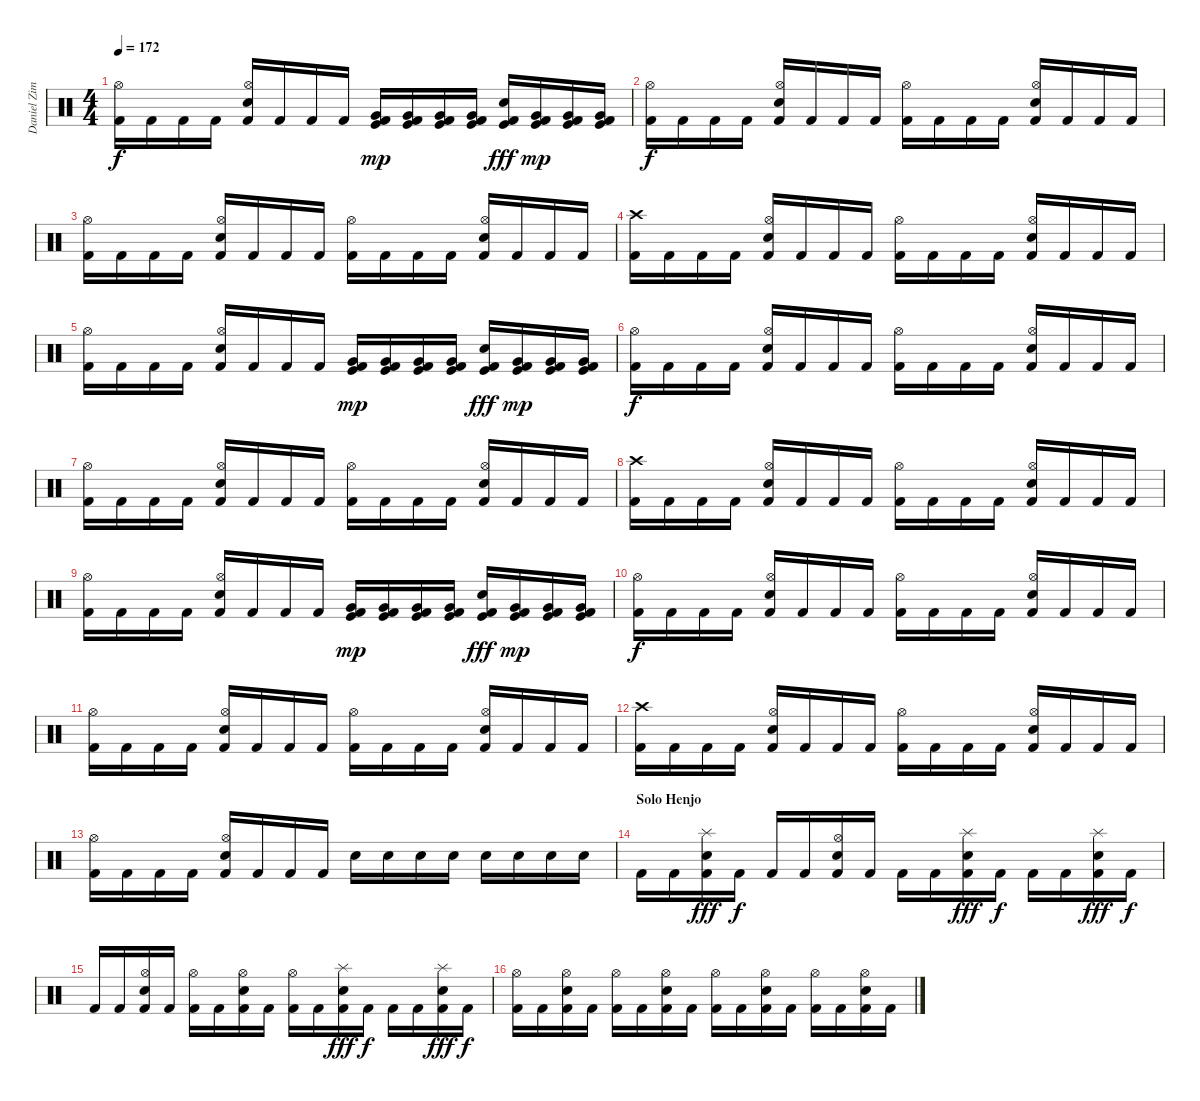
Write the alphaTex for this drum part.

\track ("Daniel Zimmermann - Drums" "Daniel Zim") {instrument percussion}
\staff {score}
\articulation defaults
\ts (4 4)
\tempo 172
\clef neutral
\ks c
("Kick (hit) 2" "Hi-Hat (open)").16{dy f} "Kick (hit) 2".16 "Kick (hit) 2".16 "Kick (hit) 2".16 ("Kick (hit) 2" "Electric Snare (hit)" "Hi-Hat (open)").16 "Kick (hit) 2".16 "Kick (hit) 2".16 "Kick (hit) 2".16 ("Kick (hit) 2" "Kick (hit)" "Very Low Tom (hit)").16{dy mp} ("Kick (hit) 2" "Kick (hit)" "Very Low Tom (hit)").16 ("Kick (hit) 2" "Kick (hit)" "Very Low Tom (hit)").16 ("Kick (hit) 2" "Kick (hit)" "Very Low Tom (hit)").16 ("Kick (hit) 2" "Kick (hit)" "Electric Snare (hit)").16{dy fff} ("Kick (hit) 2" "Kick (hit)" "Very Low Tom (hit)").16{dy mp} ("Kick (hit) 2" "Kick (hit)" "Very Low Tom (hit)").16 ("Kick (hit) 2" "Kick (hit)" "Very Low Tom (hit)").16 |
("Kick (hit) 2" "Hi-Hat (open)").16{dy f} "Kick (hit) 2".16 "Kick (hit) 2".16 "Kick (hit) 2".16 ("Kick (hit) 2" "Electric Snare (hit)" "Hi-Hat (open)").16 "Kick (hit) 2".16 "Kick (hit) 2".16 "Kick (hit) 2".16 ("Kick (hit) 2" "Hi-Hat (open)").16 "Kick (hit) 2".16 "Kick (hit) 2".16 "Kick (hit) 2".16 ("Kick (hit) 2" "Electric Snare (hit)" "Hi-Hat (open)").16 "Kick (hit) 2".16 "Kick (hit) 2".16 "Kick (hit) 2".16 |
("Kick (hit) 2" "Hi-Hat (open)").16 "Kick (hit) 2".16 "Kick (hit) 2".16 "Kick (hit) 2".16 ("Kick (hit) 2" "Electric Snare (hit)" "Hi-Hat (open)").16 "Kick (hit) 2".16 "Kick (hit) 2".16 "Kick (hit) 2".16 ("Kick (hit) 2" "Hi-Hat (open)").16 "Kick (hit) 2".16 "Kick (hit) 2".16 "Kick (hit) 2".16 ("Kick (hit) 2" "Electric Snare (hit)" "Hi-Hat (open)").16 "Kick (hit) 2".16 "Kick (hit) 2".16 "Kick (hit) 2".16 |
("Kick (hit) 2" "Crash high (hit)").16 "Kick (hit) 2".16 "Kick (hit) 2".16 "Kick (hit) 2".16 ("Kick (hit) 2" "Electric Snare (hit)" "Hi-Hat (open)").16 "Kick (hit) 2".16 "Kick (hit) 2".16 "Kick (hit) 2".16 ("Kick (hit) 2" "Hi-Hat (open)").16 "Kick (hit) 2".16 "Kick (hit) 2".16 "Kick (hit) 2".16 ("Kick (hit) 2" "Electric Snare (hit)" "Hi-Hat (open)").16 "Kick (hit) 2".16 "Kick (hit) 2".16 "Kick (hit) 2".16 |
("Kick (hit) 2" "Hi-Hat (open)").16 "Kick (hit) 2".16 "Kick (hit) 2".16 "Kick (hit) 2".16 ("Kick (hit) 2" "Electric Snare (hit)" "Hi-Hat (open)").16 "Kick (hit) 2".16 "Kick (hit) 2".16 "Kick (hit) 2".16 ("Kick (hit) 2" "Kick (hit)" "Very Low Tom (hit)").16{dy mp} ("Kick (hit) 2" "Kick (hit)" "Very Low Tom (hit)").16 ("Kick (hit) 2" "Kick (hit)" "Very Low Tom (hit)").16 ("Kick (hit) 2" "Kick (hit)" "Very Low Tom (hit)").16 ("Kick (hit) 2" "Kick (hit)" "Electric Snare (hit)").16{dy fff} ("Kick (hit) 2" "Kick (hit)" "Very Low Tom (hit)").16{dy mp} ("Kick (hit) 2" "Kick (hit)" "Very Low Tom (hit)").16 ("Kick (hit) 2" "Kick (hit)" "Very Low Tom (hit)").16 |
("Kick (hit) 2" "Hi-Hat (open)").16{dy f} "Kick (hit) 2".16 "Kick (hit) 2".16 "Kick (hit) 2".16 ("Kick (hit) 2" "Electric Snare (hit)" "Hi-Hat (open)").16 "Kick (hit) 2".16 "Kick (hit) 2".16 "Kick (hit) 2".16 ("Kick (hit) 2" "Hi-Hat (open)").16 "Kick (hit) 2".16 "Kick (hit) 2".16 "Kick (hit) 2".16 ("Kick (hit) 2" "Electric Snare (hit)" "Hi-Hat (open)").16 "Kick (hit) 2".16 "Kick (hit) 2".16 "Kick (hit) 2".16 |
("Kick (hit) 2" "Hi-Hat (open)").16 "Kick (hit) 2".16 "Kick (hit) 2".16 "Kick (hit) 2".16 ("Kick (hit) 2" "Electric Snare (hit)" "Hi-Hat (open)").16 "Kick (hit) 2".16 "Kick (hit) 2".16 "Kick (hit) 2".16 ("Kick (hit) 2" "Hi-Hat (open)").16 "Kick (hit) 2".16 "Kick (hit) 2".16 "Kick (hit) 2".16 ("Kick (hit) 2" "Electric Snare (hit)" "Hi-Hat (open)").16 "Kick (hit) 2".16 "Kick (hit) 2".16 "Kick (hit) 2".16 |
("Kick (hit) 2" "Crash high (hit)").16 "Kick (hit) 2".16 "Kick (hit) 2".16 "Kick (hit) 2".16 ("Kick (hit) 2" "Electric Snare (hit)" "Hi-Hat (open)").16 "Kick (hit) 2".16 "Kick (hit) 2".16 "Kick (hit) 2".16 ("Kick (hit) 2" "Hi-Hat (open)").16 "Kick (hit) 2".16 "Kick (hit) 2".16 "Kick (hit) 2".16 ("Kick (hit) 2" "Electric Snare (hit)" "Hi-Hat (open)").16 "Kick (hit) 2".16 "Kick (hit) 2".16 "Kick (hit) 2".16 |
("Kick (hit) 2" "Hi-Hat (open)").16 "Kick (hit) 2".16 "Kick (hit) 2".16 "Kick (hit) 2".16 ("Kick (hit) 2" "Electric Snare (hit)" "Hi-Hat (open)").16 "Kick (hit) 2".16 "Kick (hit) 2".16 "Kick (hit) 2".16 ("Kick (hit) 2" "Kick (hit)" "Very Low Tom (hit)").16{dy mp} ("Kick (hit) 2" "Kick (hit)" "Very Low Tom (hit)").16 ("Kick (hit) 2" "Kick (hit)" "Very Low Tom (hit)").16 ("Kick (hit) 2" "Kick (hit)" "Very Low Tom (hit)").16 ("Kick (hit) 2" "Kick (hit)" "Electric Snare (hit)").16{dy fff} ("Kick (hit) 2" "Kick (hit)" "Very Low Tom (hit)").16{dy mp} ("Kick (hit) 2" "Kick (hit)" "Very Low Tom (hit)").16 ("Kick (hit) 2" "Kick (hit)" "Very Low Tom (hit)").16 |
("Kick (hit) 2" "Hi-Hat (open)").16{dy f} "Kick (hit) 2".16 "Kick (hit) 2".16 "Kick (hit) 2".16 ("Kick (hit) 2" "Electric Snare (hit)" "Hi-Hat (open)").16 "Kick (hit) 2".16 "Kick (hit) 2".16 "Kick (hit) 2".16 ("Kick (hit) 2" "Hi-Hat (open)").16 "Kick (hit) 2".16 "Kick (hit) 2".16 "Kick (hit) 2".16 ("Kick (hit) 2" "Electric Snare (hit)" "Hi-Hat (open)").16 "Kick (hit) 2".16 "Kick (hit) 2".16 "Kick (hit) 2".16 |
("Kick (hit) 2" "Hi-Hat (open)").16 "Kick (hit) 2".16 "Kick (hit) 2".16 "Kick (hit) 2".16 ("Kick (hit) 2" "Electric Snare (hit)" "Hi-Hat (open)").16 "Kick (hit) 2".16 "Kick (hit) 2".16 "Kick (hit) 2".16 ("Kick (hit) 2" "Hi-Hat (open)").16 "Kick (hit) 2".16 "Kick (hit) 2".16 "Kick (hit) 2".16 ("Kick (hit) 2" "Electric Snare (hit)" "Hi-Hat (open)").16 "Kick (hit) 2".16 "Kick (hit) 2".16 "Kick (hit) 2".16 |
("Kick (hit) 2" "Crash high (hit)").16 "Kick (hit) 2".16 "Kick (hit) 2".16 "Kick (hit) 2".16 ("Kick (hit) 2" "Electric Snare (hit)" "Hi-Hat (open)").16 "Kick (hit) 2".16 "Kick (hit) 2".16 "Kick (hit) 2".16 ("Kick (hit) 2" "Hi-Hat (open)").16 "Kick (hit) 2".16 "Kick (hit) 2".16 "Kick (hit) 2".16 ("Kick (hit) 2" "Electric Snare (hit)" "Hi-Hat (open)").16 "Kick (hit) 2".16 "Kick (hit) 2".16 "Kick (hit) 2".16 |
("Kick (hit) 2" "Hi-Hat (open)").16 "Kick (hit) 2".16 "Kick (hit) 2".16 "Kick (hit) 2".16 ("Kick (hit) 2" "Electric Snare (hit)" "Hi-Hat (open)").16 "Kick (hit) 2".16 "Kick (hit) 2".16 "Kick (hit) 2".16 "Electric Snare (hit)".16 "Electric Snare (hit)".16 "Electric Snare (hit)".16 "Electric Snare (hit)".16 "Electric Snare (hit)".16 "Electric Snare (hit)".16 "Electric Snare (hit)".16 "Electric Snare (hit)".16 |
\section ("" "Solo Henjo")
"Kick (hit) 2".16 "Kick (hit) 2".16 ("Kick (hit) 2" "Electric Snare (hit)" "Splash (hit)").16{dy fff} "Kick (hit) 2".16{dy f} "Kick (hit) 2".16 "Kick (hit) 2".16 ("Kick (hit) 2" "Electric Snare (hit)" "Hi-Hat (open)").16 "Kick (hit) 2".16 "Kick (hit) 2".16 "Kick (hit) 2".16 ("Kick (hit) 2" "Electric Snare (hit)" "Splash (hit)").16{dy fff} "Kick (hit) 2".16{dy f} "Kick (hit) 2".16 "Kick (hit) 2".16 ("Kick (hit) 2" "Electric Snare (hit)" "Splash (hit)").16{dy fff} "Kick (hit) 2".16{dy f} |
"Kick (hit) 2".16 "Kick (hit) 2".16 ("Kick (hit) 2" "Electric Snare (hit)" "Hi-Hat (open)").16 "Kick (hit) 2".16 ("Kick (hit) 2" "Hi-Hat (open)").16 "Kick (hit) 2".16 ("Kick (hit) 2" "Electric Snare (hit)" "Hi-Hat (open)").16 "Kick (hit) 2".16 ("Kick (hit) 2" "Hi-Hat (open)").16 "Kick (hit) 2".16 ("Kick (hit) 2" "Electric Snare (hit)" "Splash (hit)").16{dy fff} "Kick (hit) 2".16{dy f} "Kick (hit) 2".16 "Kick (hit) 2".16 ("Kick (hit) 2" "Electric Snare (hit)" "Splash (hit)").16{dy fff} "Kick (hit) 2".16{dy f} |
("Kick (hit) 2" "Hi-Hat (open)").16 "Kick (hit) 2".16 ("Kick (hit) 2" "Electric Snare (hit)" "Hi-Hat (open)").16 "Kick (hit) 2".16 ("Kick (hit) 2" "Hi-Hat (open)").16 "Kick (hit) 2".16 ("Kick (hit) 2" "Electric Snare (hit)" "Hi-Hat (open)").16 "Kick (hit) 2".16 ("Kick (hit) 2" "Hi-Hat (open)").16 "Kick (hit) 2".16 ("Kick (hit) 2" "Electric Snare (hit)" "Hi-Hat (open)").16 "Kick (hit) 2".16 ("Kick (hit) 2" "Hi-Hat (open)").16 "Kick (hit) 2".16 ("Kick (hit) 2" "Electric Snare (hit)" "Hi-Hat (open)").16 "Kick (hit) 2".16
